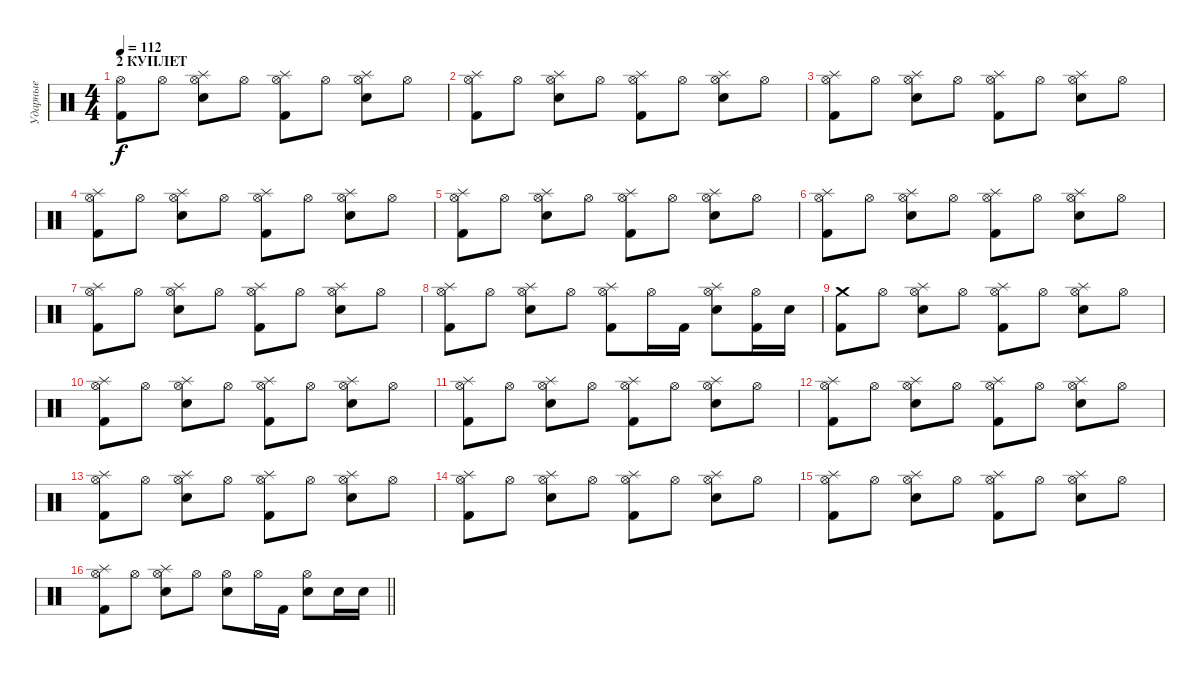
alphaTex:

\track ("Ударные" "Ударные") {instrument percussion}
\staff {score}
\articulation defaults
\ts (4 4)
\section ("" "2 КУПЛЕТ")
\tempo 112
\clef neutral
\ks c
("Hi-Hat (open)" "Kick (hit) 2").8{dy f} "Hi-Hat (open)".8 ("Hi-Hat (open)" "Splash (hit)" "Snare (hit) 2").8 "Hi-Hat (open)".8 ("Hi-Hat (open)" "Splash (hit)" "Kick (hit) 2").8 "Hi-Hat (open)".8 ("Hi-Hat (open)" "Splash (hit)" "Snare (hit) 2").8 "Hi-Hat (open)".8 |
("Hi-Hat (open)" "Splash (hit)" "Kick (hit) 2").8 "Hi-Hat (open)".8 ("Hi-Hat (open)" "Splash (hit)" "Snare (hit) 2").8 "Hi-Hat (open)".8 ("Hi-Hat (open)" "Splash (hit)" "Kick (hit) 2").8 "Hi-Hat (open)".8 ("Hi-Hat (open)" "Splash (hit)" "Snare (hit) 2").8 "Hi-Hat (open)".8 |
("Hi-Hat (open)" "Splash (hit)" "Kick (hit) 2").8 "Hi-Hat (open)".8 ("Hi-Hat (open)" "Splash (hit)" "Snare (hit) 2").8 "Hi-Hat (open)".8 ("Hi-Hat (open)" "Splash (hit)" "Kick (hit) 2").8 "Hi-Hat (open)".8 ("Hi-Hat (open)" "Splash (hit)" "Snare (hit) 2").8 "Hi-Hat (open)".8 |
("Hi-Hat (open)" "Splash (hit)" "Kick (hit) 2").8 "Hi-Hat (open)".8 ("Hi-Hat (open)" "Splash (hit)" "Snare (hit) 2").8 "Hi-Hat (open)".8 ("Hi-Hat (open)" "Splash (hit)" "Kick (hit) 2").8 "Hi-Hat (open)".8 ("Hi-Hat (open)" "Splash (hit)" "Snare (hit) 2").8 "Hi-Hat (open)".8 |
("Hi-Hat (open)" "Splash (hit)" "Kick (hit) 2").8 "Hi-Hat (open)".8 ("Hi-Hat (open)" "Splash (hit)" "Snare (hit) 2").8 "Hi-Hat (open)".8 ("Hi-Hat (open)" "Splash (hit)" "Kick (hit) 2").8 "Hi-Hat (open)".8 ("Hi-Hat (open)" "Splash (hit)" "Snare (hit) 2").8 "Hi-Hat (open)".8 |
("Hi-Hat (open)" "Splash (hit)" "Kick (hit) 2").8 "Hi-Hat (open)".8 ("Hi-Hat (open)" "Splash (hit)" "Snare (hit) 2").8 "Hi-Hat (open)".8 ("Hi-Hat (open)" "Splash (hit)" "Kick (hit) 2").8 "Hi-Hat (open)".8 ("Hi-Hat (open)" "Splash (hit)" "Snare (hit) 2").8 "Hi-Hat (open)".8 |
("Hi-Hat (open)" "Splash (hit)" "Kick (hit) 2").8 "Hi-Hat (open)".8 ("Hi-Hat (open)" "Splash (hit)" "Snare (hit) 2").8 "Hi-Hat (open)".8 ("Hi-Hat (open)" "Splash (hit)" "Kick (hit) 2").8 "Hi-Hat (open)".8 ("Hi-Hat (open)" "Splash (hit)" "Snare (hit) 2").8 "Hi-Hat (open)".8 |
("Hi-Hat (open)" "Splash (hit)" "Kick (hit) 2").8 "Hi-Hat (open)".8 ("Hi-Hat (open)" "Splash (hit)" "Snare (hit) 2").8 "Hi-Hat (open)".8 ("Hi-Hat (open)" "Splash (hit)" "Kick (hit) 2").8 "Hi-Hat (open)".16 "Kick (hit) 2".16 ("Hi-Hat (open)" "Splash (hit)" "Snare (hit) 2").8 ("Hi-Hat (open)" "Kick (hit) 2").16 "Snare (hit) 2".16 |
("Crash medium (hit)" "Kick (hit) 2").8 "Hi-Hat (open)".8 ("Hi-Hat (open)" "Splash (hit)" "Snare (hit) 2").8 "Hi-Hat (open)".8 ("Hi-Hat (open)" "Splash (hit)" "Kick (hit) 2").8 "Hi-Hat (open)".8 ("Hi-Hat (open)" "Splash (hit)" "Snare (hit) 2").8 "Hi-Hat (open)".8 |
("Hi-Hat (open)" "Splash (hit)" "Kick (hit) 2").8 "Hi-Hat (open)".8 ("Hi-Hat (open)" "Splash (hit)" "Snare (hit) 2").8 "Hi-Hat (open)".8 ("Hi-Hat (open)" "Splash (hit)" "Kick (hit) 2").8 "Hi-Hat (open)".8 ("Hi-Hat (open)" "Splash (hit)" "Snare (hit) 2").8 "Hi-Hat (open)".8 |
("Hi-Hat (open)" "Splash (hit)" "Kick (hit) 2").8 "Hi-Hat (open)".8 ("Hi-Hat (open)" "Splash (hit)" "Snare (hit) 2").8 "Hi-Hat (open)".8 ("Hi-Hat (open)" "Splash (hit)" "Kick (hit) 2").8 "Hi-Hat (open)".8 ("Hi-Hat (open)" "Splash (hit)" "Snare (hit) 2").8 "Hi-Hat (open)".8 |
("Hi-Hat (open)" "Splash (hit)" "Kick (hit) 2").8 "Hi-Hat (open)".8 ("Hi-Hat (open)" "Splash (hit)" "Snare (hit) 2").8 "Hi-Hat (open)".8 ("Hi-Hat (open)" "Splash (hit)" "Kick (hit) 2").8 "Hi-Hat (open)".8 ("Hi-Hat (open)" "Splash (hit)" "Snare (hit) 2").8 "Hi-Hat (open)".8 |
("Hi-Hat (open)" "Splash (hit)" "Kick (hit) 2").8 "Hi-Hat (open)".8 ("Hi-Hat (open)" "Splash (hit)" "Snare (hit) 2").8 "Hi-Hat (open)".8 ("Hi-Hat (open)" "Splash (hit)" "Kick (hit) 2").8 "Hi-Hat (open)".8 ("Hi-Hat (open)" "Splash (hit)" "Snare (hit) 2").8 "Hi-Hat (open)".8 |
("Hi-Hat (open)" "Splash (hit)" "Kick (hit) 2").8 "Hi-Hat (open)".8 ("Hi-Hat (open)" "Splash (hit)" "Snare (hit) 2").8 "Hi-Hat (open)".8 ("Hi-Hat (open)" "Splash (hit)" "Kick (hit) 2").8 "Hi-Hat (open)".8 ("Hi-Hat (open)" "Splash (hit)" "Snare (hit) 2").8 "Hi-Hat (open)".8 |
("Hi-Hat (open)" "Splash (hit)" "Kick (hit) 2").8 "Hi-Hat (open)".8 ("Hi-Hat (open)" "Splash (hit)" "Snare (hit) 2").8 "Hi-Hat (open)".8 ("Hi-Hat (open)" "Splash (hit)" "Kick (hit) 2").8 "Hi-Hat (open)".8 ("Hi-Hat (open)" "Splash (hit)" "Snare (hit) 2").8 "Hi-Hat (open)".8 |
\barLineRight lightlight
("Hi-Hat (open)" "Splash (hit)" "Kick (hit) 2").8 "Hi-Hat (open)".8 ("Hi-Hat (open)" "Splash (hit)" "Snare (hit) 2").8 "Hi-Hat (open)".8 ("Hi-Hat (open)" "Snare (hit) 2").8 "Hi-Hat (open)".16 "Kick (hit) 2".16 ("Hi-Hat (open)" "Snare (hit) 2").8 "Snare (hit) 2".16 "Snare (hit) 2".16
